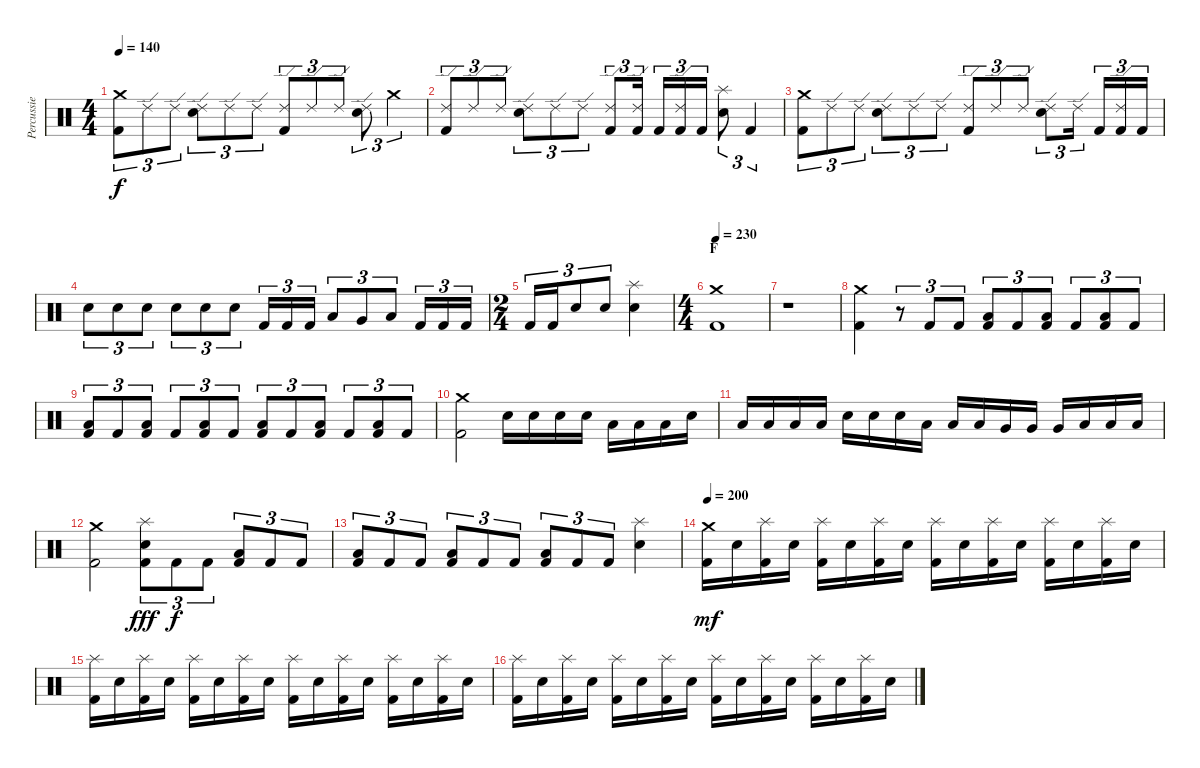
\track ("Percussie" "Percussie") {instrument percussion}
\staff {score}
\articulation defaults
\ts (4 4)
\tempo 140
\clef neutral
\ks c
("Crash medium (hit)" "Kick (hit) 2").8{tu (3 2) dy f} "Ride (edge) 2".8{tu (3 2)} "Ride (edge) 2".8{tu (3 2)} ("Ride (edge) 2" "Electric Snare (hit)").8{tu (3 2)} "Ride (edge) 2".8{tu (3 2)} "Ride (edge) 2".8{tu (3 2)} ("Ride (edge) 2" "Kick (hit) 2").8{tu (3 2)} "Ride (edge) 2".8{tu (3 2)} "Ride (edge) 2".8{tu (3 2)} ("Ride (edge) 2" "Electric Snare (hit)").8{tu (3 2)} "Crash medium (hit)".4{tu (3 2)} |
("Ride (edge) 2" "Kick (hit) 2").8{tu (3 2)} "Ride (edge) 2".8{tu (3 2)} "Ride (edge) 2".8{tu (3 2)} ("Ride (edge) 2" "Electric Snare (hit)").8{tu (3 2)} "Ride (edge) 2".8{tu (3 2)} "Ride (edge) 2".8{tu (3 2)} ("Ride (edge) 2" "Kick (hit) 2").8{tu (3 2)} ("Ride (edge) 2" "Kick (hit) 2").16{tu (3 2)} "Kick (hit) 2".16{tu (3 2)} ("Ride (edge) 2" "Kick (hit) 2").16{tu (3 2)} "Kick (hit) 2".16{tu (3 2)} ("Splash (hit)" "Electric Snare (hit)").8{tu (3 2)} "Kick (hit) 2".4{tu (3 2)} |
("Crash medium (hit)" "Kick (hit) 2").8{tu (3 2)} "Ride (edge) 2".8{tu (3 2)} "Ride (edge) 2".8{tu (3 2)} ("Ride (edge) 2" "Electric Snare (hit)").8{tu (3 2)} "Ride (edge) 2".8{tu (3 2)} "Ride (edge) 2".8{tu (3 2)} ("Ride (edge) 2" "Kick (hit) 2").8{tu (3 2)} "Ride (edge) 2".8{tu (3 2)} "Ride (edge) 2".8{tu (3 2)} ("Ride (edge) 2" "Electric Snare (hit)").8{tu (3 2)} "Ride (edge) 2".16{tu (3 2)} "Kick (hit) 2".16{tu (3 2)} ("Ride (edge) 2" "Kick (hit) 2").16{tu (3 2)} "Kick (hit) 2".16{tu (3 2)} |
"Electric Snare (hit)".8{tu (3 2)} "Electric Snare (hit)".8{tu (3 2)} "Electric Snare (hit)".8{tu (3 2)} "Electric Snare (hit)".8{tu (3 2)} "Electric Snare (hit)".8{tu (3 2)} "Electric Snare (hit)".8{tu (3 2)} "Kick (hit) 2".16{tu (3 2)} "Kick (hit) 2".16{tu (3 2)} "Kick (hit) 2".16{tu (3 2)} "Low Tom (hit)".8{tu (3 2)} "Very Low Tom (hit)".8{tu (3 2)} "Low Floor Tom (hit)".8{tu (3 2)} "Kick (hit) 2".16{tu (3 2)} "Kick (hit) 2".16{tu (3 2)} "Kick (hit) 2".16{tu (3 2)} |
\ts (2 4)
"Kick (hit) 2".16{tu (3 2)} "Kick (hit) 2".16{tu (3 2)} "Electric Snare (hit)".8{tu (3 2)} "Electric Snare (hit)".8{tu (3 2)} ("Splash (hit)" "Electric Snare (hit)").4 |
\ts (4 4)
\section ("" "F")
\tempo 230
("Crash medium (hit)" "Kick (hit) 2").1 |
r.1 |
("Crash medium (hit)" "Kick (hit) 2").4 r.8{tu (3 2)} "Kick (hit) 2".8{tu (3 2)} "Kick (hit) 2".8{tu (3 2)} ("Low Tom (hit)" "Kick (hit) 2").8{tu (3 2)} "Kick (hit) 2".8{tu (3 2)} ("Low Tom (hit)" "Kick (hit) 2").8{tu (3 2)} "Kick (hit) 2".8{tu (3 2)} ("Low Tom (hit)" "Kick (hit) 2").8{tu (3 2)} "Kick (hit) 2".8{tu (3 2)} |
("Low Tom (hit)" "Kick (hit) 2").8{tu (3 2)} "Kick (hit) 2".8{tu (3 2)} ("Low Tom (hit)" "Kick (hit) 2").8{tu (3 2)} "Kick (hit) 2".8{tu (3 2)} ("Low Tom (hit)" "Kick (hit) 2").8{tu (3 2)} "Kick (hit) 2".8{tu (3 2)} ("Low Tom (hit)" "Kick (hit) 2").8{tu (3 2)} "Kick (hit) 2".8{tu (3 2)} ("Low Tom (hit)" "Kick (hit) 2").8{tu (3 2)} "Kick (hit) 2".8{tu (3 2)} ("Low Tom (hit)" "Kick (hit) 2").8{tu (3 2)} "Kick (hit) 2".8{tu (3 2)} |
("Crash medium (hit)" "Kick (hit) 2").2 "Electric Snare (hit)".16 "Electric Snare (hit)".16 "Electric Snare (hit)".16 "Electric Snare (hit)".16 "Low Tom (hit)".16 "Low Tom (hit)".16 "Low Tom (hit)".16 "Electric Snare (hit)".16 |
"Low Tom (hit)".16 "Low Tom (hit)".16 "Low Tom (hit)".16 "Low Tom (hit)".16 "Electric Snare (hit)".16 "Electric Snare (hit)".16 "Electric Snare (hit)".16 "Low Tom (hit)".16 "Low Tom (hit)".16 "Low Tom (hit)".16 "Very Low Tom (hit)".16 "Very Low Tom (hit)".16 "Very Low Tom (hit)".16 "Low Floor Tom (hit)".16 "Low Floor Tom (hit)".16 "Low Floor Tom (hit)".16 |
("Crash medium (hit)" "Kick (hit) 2").2 ("Splash (hit)" "Electric Snare (hit)" "Kick (hit) 2").8{tu (3 2) dy fff} "Kick (hit) 2".8{tu (3 2) dy f} "Kick (hit) 2".8{tu (3 2)} ("Low Tom (hit)" "Kick (hit) 2").8{tu (3 2)} "Kick (hit) 2".8{tu (3 2)} "Kick (hit) 2".8{tu (3 2)} |
("Low Tom (hit)" "Kick (hit) 2").8{tu (3 2)} "Kick (hit) 2".8{tu (3 2)} "Kick (hit) 2".8{tu (3 2)} ("Low Tom (hit)" "Kick (hit) 2").8{tu (3 2)} "Kick (hit) 2".8{tu (3 2)} "Kick (hit) 2".8{tu (3 2)} ("Low Tom (hit)" "Kick (hit) 2").8{tu (3 2)} "Kick (hit) 2".8{tu (3 2)} "Kick (hit) 2".8{tu (3 2)} ("Splash (hit)" "Electric Snare (hit)").4 |
\tempo 200
("Crash medium (hit)" "Kick (hit) 2").16{dy mf} "Electric Snare (hit)".16 ("Splash (hit)" "Kick (hit) 2").16 "Electric Snare (hit)".16 ("Splash (hit)" "Kick (hit) 2").16 "Electric Snare (hit)".16 ("Splash (hit)" "Kick (hit) 2").16 "Electric Snare (hit)".16 ("Splash (hit)" "Kick (hit) 2").16 "Electric Snare (hit)".16 ("Splash (hit)" "Kick (hit) 2").16 "Electric Snare (hit)".16 ("Splash (hit)" "Kick (hit) 2").16 "Electric Snare (hit)".16 ("Splash (hit)" "Kick (hit) 2").16 "Electric Snare (hit)".16 |
("Splash (hit)" "Kick (hit) 2").16 "Electric Snare (hit)".16 ("Splash (hit)" "Kick (hit) 2").16 "Electric Snare (hit)".16 ("Splash (hit)" "Kick (hit) 2").16 "Electric Snare (hit)".16 ("Splash (hit)" "Kick (hit) 2").16 "Electric Snare (hit)".16 ("Splash (hit)" "Kick (hit) 2").16 "Electric Snare (hit)".16 ("Splash (hit)" "Kick (hit) 2").16 "Electric Snare (hit)".16 ("Splash (hit)" "Kick (hit) 2").16 "Electric Snare (hit)".16 ("Splash (hit)" "Kick (hit) 2").16 "Electric Snare (hit)".16 |
("Splash (hit)" "Kick (hit) 2").16 "Electric Snare (hit)".16 ("Splash (hit)" "Kick (hit) 2").16 "Electric Snare (hit)".16 ("Splash (hit)" "Kick (hit) 2").16 "Electric Snare (hit)".16 ("Splash (hit)" "Kick (hit) 2").16 "Electric Snare (hit)".16 ("Splash (hit)" "Kick (hit) 2").16 "Electric Snare (hit)".16 ("Splash (hit)" "Kick (hit) 2").16 "Electric Snare (hit)".16 ("Splash (hit)" "Kick (hit) 2").16 "Electric Snare (hit)".16 ("Splash (hit)" "Kick (hit) 2").16 "Electric Snare (hit)".16
